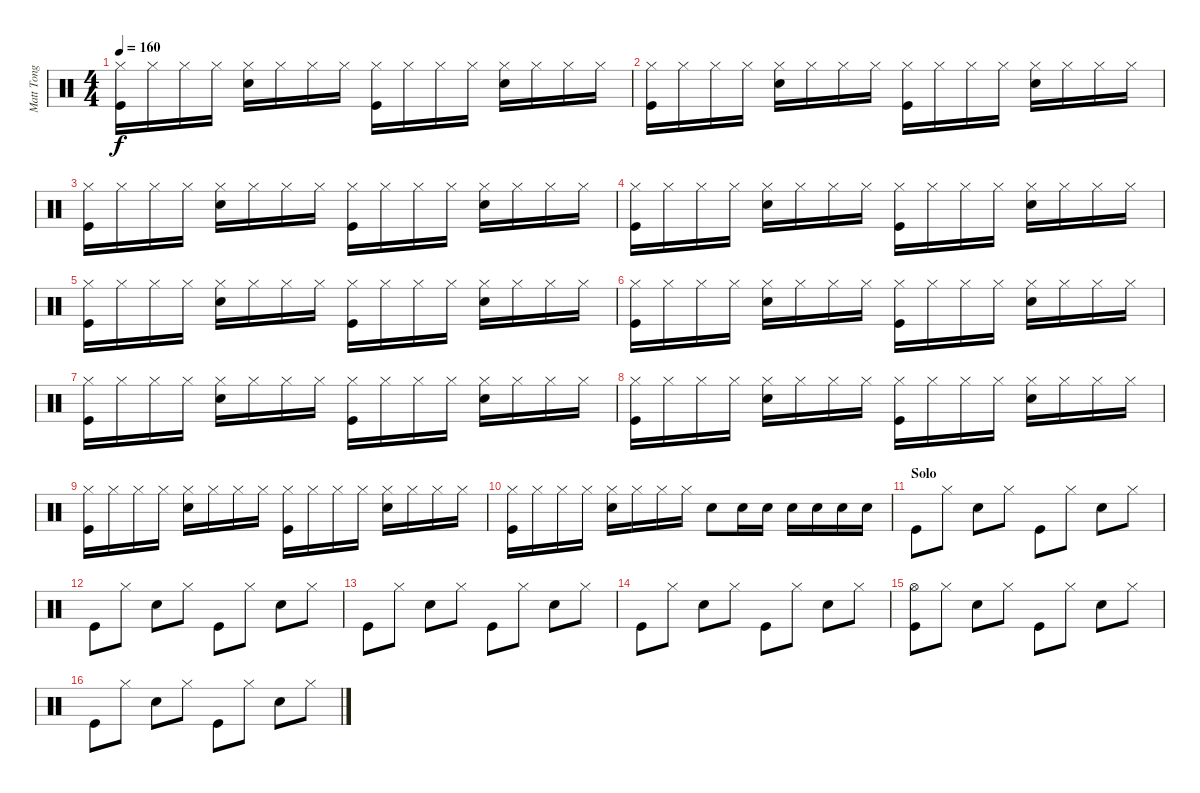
\track ("Matt Tong" "Matt Tong") {instrument percussion}
\staff {score}
\articulation defaults
\ts (4 4)
\tempo 160
\clef neutral
\ks c
("Hi-Hat (closed)" "Kick (hit)").16{dy f} "Hi-Hat (closed)".16 "Hi-Hat (closed)".16 "Hi-Hat (closed)".16 ("Hi-Hat (closed)" "Electric Snare (hit)").16 "Hi-Hat (closed)".16 "Hi-Hat (closed)".16 "Hi-Hat (closed)".16 ("Hi-Hat (closed)" "Kick (hit)").16 "Hi-Hat (closed)".16 "Hi-Hat (closed)".16 "Hi-Hat (closed)".16 ("Hi-Hat (closed)" "Electric Snare (hit)").16 "Hi-Hat (closed)".16 "Hi-Hat (closed)".16 "Hi-Hat (closed)".16 |
("Hi-Hat (closed)" "Kick (hit)").16 "Hi-Hat (closed)".16 "Hi-Hat (closed)".16 "Hi-Hat (closed)".16 ("Hi-Hat (closed)" "Electric Snare (hit)").16 "Hi-Hat (closed)".16 "Hi-Hat (closed)".16 "Hi-Hat (closed)".16 ("Hi-Hat (closed)" "Kick (hit)").16 "Hi-Hat (closed)".16 "Hi-Hat (closed)".16 "Hi-Hat (closed)".16 ("Hi-Hat (closed)" "Electric Snare (hit)").16 "Hi-Hat (closed)".16 "Hi-Hat (closed)".16 "Hi-Hat (closed)".16 |
("Hi-Hat (closed)" "Kick (hit)").16 "Hi-Hat (closed)".16 "Hi-Hat (closed)".16 "Hi-Hat (closed)".16 ("Hi-Hat (closed)" "Electric Snare (hit)").16 "Hi-Hat (closed)".16 "Hi-Hat (closed)".16 "Hi-Hat (closed)".16 ("Hi-Hat (closed)" "Kick (hit)").16 "Hi-Hat (closed)".16 "Hi-Hat (closed)".16 "Hi-Hat (closed)".16 ("Hi-Hat (closed)" "Electric Snare (hit)").16 "Hi-Hat (closed)".16 "Hi-Hat (closed)".16 "Hi-Hat (closed)".16 |
("Hi-Hat (closed)" "Kick (hit)").16 "Hi-Hat (closed)".16 "Hi-Hat (closed)".16 "Hi-Hat (closed)".16 ("Hi-Hat (closed)" "Electric Snare (hit)").16 "Hi-Hat (closed)".16 "Hi-Hat (closed)".16 "Hi-Hat (closed)".16 ("Hi-Hat (closed)" "Kick (hit)").16 "Hi-Hat (closed)".16 "Hi-Hat (closed)".16 "Hi-Hat (closed)".16 ("Hi-Hat (closed)" "Electric Snare (hit)").16 "Hi-Hat (closed)".16 "Hi-Hat (closed)".16 "Hi-Hat (closed)".16 |
("Hi-Hat (closed)" "Kick (hit)").16 "Hi-Hat (closed)".16 "Hi-Hat (closed)".16 "Hi-Hat (closed)".16 ("Hi-Hat (closed)" "Electric Snare (hit)").16 "Hi-Hat (closed)".16 "Hi-Hat (closed)".16 "Hi-Hat (closed)".16 ("Hi-Hat (closed)" "Kick (hit)").16 "Hi-Hat (closed)".16 "Hi-Hat (closed)".16 "Hi-Hat (closed)".16 ("Hi-Hat (closed)" "Electric Snare (hit)").16 "Hi-Hat (closed)".16 "Hi-Hat (closed)".16 "Hi-Hat (closed)".16 |
("Hi-Hat (closed)" "Kick (hit)").16 "Hi-Hat (closed)".16 "Hi-Hat (closed)".16 "Hi-Hat (closed)".16 ("Hi-Hat (closed)" "Electric Snare (hit)").16 "Hi-Hat (closed)".16 "Hi-Hat (closed)".16 "Hi-Hat (closed)".16 ("Hi-Hat (closed)" "Kick (hit)").16 "Hi-Hat (closed)".16 "Hi-Hat (closed)".16 "Hi-Hat (closed)".16 ("Hi-Hat (closed)" "Electric Snare (hit)").16 "Hi-Hat (closed)".16 "Hi-Hat (closed)".16 "Hi-Hat (closed)".16 |
("Hi-Hat (closed)" "Kick (hit)").16 "Hi-Hat (closed)".16 "Hi-Hat (closed)".16 "Hi-Hat (closed)".16 ("Hi-Hat (closed)" "Electric Snare (hit)").16 "Hi-Hat (closed)".16 "Hi-Hat (closed)".16 "Hi-Hat (closed)".16 ("Hi-Hat (closed)" "Kick (hit)").16 "Hi-Hat (closed)".16 "Hi-Hat (closed)".16 "Hi-Hat (closed)".16 ("Hi-Hat (closed)" "Electric Snare (hit)").16 "Hi-Hat (closed)".16 "Hi-Hat (closed)".16 "Hi-Hat (closed)".16 |
("Hi-Hat (closed)" "Kick (hit)").16 "Hi-Hat (closed)".16 "Hi-Hat (closed)".16 "Hi-Hat (closed)".16 ("Hi-Hat (closed)" "Electric Snare (hit)").16 "Hi-Hat (closed)".16 "Hi-Hat (closed)".16 "Hi-Hat (closed)".16 ("Hi-Hat (closed)" "Kick (hit)").16 "Hi-Hat (closed)".16 "Hi-Hat (closed)".16 "Hi-Hat (closed)".16 ("Hi-Hat (closed)" "Electric Snare (hit)").16 "Hi-Hat (closed)".16 "Hi-Hat (closed)".16 "Hi-Hat (closed)".16 |
("Hi-Hat (closed)" "Kick (hit)").16 "Hi-Hat (closed)".16 "Hi-Hat (closed)".16 "Hi-Hat (closed)".16 ("Hi-Hat (closed)" "Electric Snare (hit)").16 "Hi-Hat (closed)".16 "Hi-Hat (closed)".16 "Hi-Hat (closed)".16 ("Hi-Hat (closed)" "Kick (hit)").16 "Hi-Hat (closed)".16 "Hi-Hat (closed)".16 "Hi-Hat (closed)".16 ("Hi-Hat (closed)" "Electric Snare (hit)").16 "Hi-Hat (closed)".16 "Hi-Hat (closed)".16 "Hi-Hat (closed)".16 |
("Hi-Hat (closed)" "Kick (hit)").16 "Hi-Hat (closed)".16 "Hi-Hat (closed)".16 "Hi-Hat (closed)".16 ("Hi-Hat (closed)" "Electric Snare (hit)").16 "Hi-Hat (closed)".16 "Hi-Hat (closed)".16 "Hi-Hat (closed)".16 "Electric Snare (hit)".8 "Electric Snare (hit)".16 "Electric Snare (hit)".16 "Electric Snare (hit)".16 "Electric Snare (hit)".16 "Electric Snare (hit)".16 "Electric Snare (hit)".16 |
\section ("" "Solo")
"Kick (hit)".8 "Hi-Hat (closed)".8 "Electric Snare (hit)".8 "Hi-Hat (closed)".8 "Kick (hit)".8 "Hi-Hat (closed)".8 "Electric Snare (hit)".8 "Hi-Hat (closed)".8 |
"Kick (hit)".8 "Hi-Hat (closed)".8 "Electric Snare (hit)".8 "Hi-Hat (closed)".8 "Kick (hit)".8 "Hi-Hat (closed)".8 "Electric Snare (hit)".8 "Hi-Hat (closed)".8 |
"Kick (hit)".8 "Hi-Hat (closed)".8 "Electric Snare (hit)".8 "Hi-Hat (closed)".8 "Kick (hit)".8 "Hi-Hat (closed)".8 "Electric Snare (hit)".8 "Hi-Hat (closed)".8 |
"Kick (hit)".8 "Hi-Hat (closed)".8 "Electric Snare (hit)".8 "Hi-Hat (closed)".8 "Kick (hit)".8 "Hi-Hat (closed)".8 "Electric Snare (hit)".8 "Hi-Hat (closed)".8 |
("Hi-Hat (open)" "Kick (hit)").8 "Hi-Hat (closed)".8 "Electric Snare (hit)".8 "Hi-Hat (closed)".8 "Kick (hit)".8 "Hi-Hat (closed)".8 "Electric Snare (hit)".8 "Hi-Hat (closed)".8 |
"Kick (hit)".8 "Hi-Hat (closed)".8 "Electric Snare (hit)".8 "Hi-Hat (closed)".8 "Kick (hit)".8 "Hi-Hat (closed)".8 "Electric Snare (hit)".8 "Hi-Hat (closed)".8
